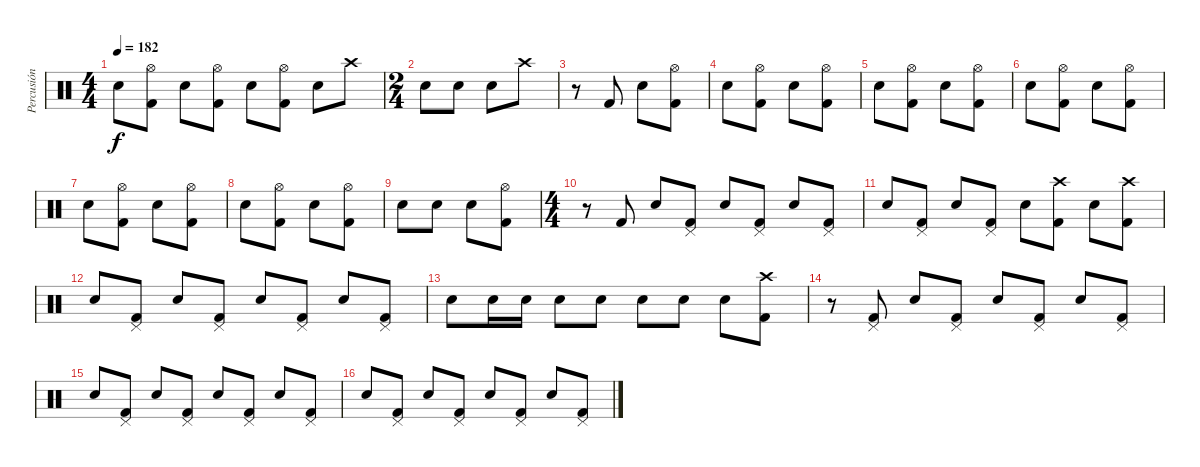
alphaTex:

\track ("Percusión" "Percusión") {instrument percussion}
\staff {score}
\articulation defaults
\ts (4 4)
\tempo 182
\clef neutral
\ks c "Electric Snare (hit)".8{dy f}
("Hi-Hat (open)" "Kick (hit) 2").8 "Electric Snare (hit)".8 ("Hi-Hat (open)" "Kick (hit) 2").8 "Electric Snare (hit)".8 ("Hi-Hat (open)" "Kick (hit) 2").8 "Electric Snare (hit)".8 "Crash high (hit)".8 |
\ts (2 4)
"Electric Snare (hit)".8 "Electric Snare (hit)".8 "Electric Snare (hit)".8 "Crash high (hit)".8 |
r.8 "Kick (hit) 2".8 "Electric Snare (hit)".8 ("Hi-Hat (open)" "Kick (hit) 2").8 |
"Electric Snare (hit)".8 ("Hi-Hat (open)" "Kick (hit) 2").8 "Electric Snare (hit)".8 ("Hi-Hat (open)" "Kick (hit) 2").8 |
"Electric Snare (hit)".8 ("Hi-Hat (open)" "Kick (hit) 2").8 "Electric Snare (hit)".8 ("Hi-Hat (open)" "Kick (hit) 2").8 |
"Electric Snare (hit)".8 ("Hi-Hat (open)" "Kick (hit) 2").8 "Electric Snare (hit)".8 ("Hi-Hat (open)" "Kick (hit) 2").8 |
"Electric Snare (hit)".8 ("Hi-Hat (open)" "Kick (hit) 2").8 "Electric Snare (hit)".8 ("Hi-Hat (open)" "Kick (hit) 2").8 |
"Electric Snare (hit)".8 ("Hi-Hat (open)" "Kick (hit) 2").8 "Electric Snare (hit)".8 ("Hi-Hat (open)" "Kick (hit) 2").8 |
"Electric Snare (hit)".8 "Electric Snare (hit)".8 "Electric Snare (hit)".8 ("Hi-Hat (open)" "Kick (hit) 2").8 |
\ts (4 4)
r.8 "Kick (hit) 2".8 "Electric Snare (hit)".8 ("Pedal Hi-Hat (hit)" "Kick (hit) 2").8 "Electric Snare (hit)".8 ("Pedal Hi-Hat (hit)" "Kick (hit) 2").8 "Electric Snare (hit)".8 ("Pedal Hi-Hat (hit)" "Kick (hit) 2").8 |
"Electric Snare (hit)".8 ("Pedal Hi-Hat (hit)" "Kick (hit) 2").8 "Electric Snare (hit)".8 ("Pedal Hi-Hat (hit)" "Kick (hit) 2").8 "Electric Snare (hit)".8 ("Crash high (hit)" "Kick (hit) 2").8 "Electric Snare (hit)".8 ("Crash high (hit)" "Kick (hit) 2").8 |
"Electric Snare (hit)".8 ("Pedal Hi-Hat (hit)" "Kick (hit) 2").8 "Electric Snare (hit)".8 ("Pedal Hi-Hat (hit)" "Kick (hit) 2").8 "Electric Snare (hit)".8 ("Pedal Hi-Hat (hit)" "Kick (hit) 2").8 "Electric Snare (hit)".8 ("Pedal Hi-Hat (hit)" "Kick (hit) 2").8 |
"Electric Snare (hit)".8 "Electric Snare (hit)".16 "Electric Snare (hit)".16 "Electric Snare (hit)".8 "Electric Snare (hit)".8 "Electric Snare (hit)".8 "Electric Snare (hit)".8 "Electric Snare (hit)".8 ("Crash high (hit)" "Kick (hit) 2").8 |
r.8 ("Pedal Hi-Hat (hit)" "Kick (hit) 2").8 "Electric Snare (hit)".8 ("Pedal Hi-Hat (hit)" "Kick (hit) 2").8 "Electric Snare (hit)".8 ("Pedal Hi-Hat (hit)" "Kick (hit) 2").8 "Electric Snare (hit)".8 ("Pedal Hi-Hat (hit)" "Kick (hit) 2").8 |
"Electric Snare (hit)".8 ("Pedal Hi-Hat (hit)" "Kick (hit) 2").8 "Electric Snare (hit)".8 ("Pedal Hi-Hat (hit)" "Kick (hit) 2").8 "Electric Snare (hit)".8 ("Pedal Hi-Hat (hit)" "Kick (hit) 2").8 "Electric Snare (hit)".8 ("Pedal Hi-Hat (hit)" "Kick (hit) 2").8 |
"Electric Snare (hit)".8 ("Pedal Hi-Hat (hit)" "Kick (hit) 2").8 "Electric Snare (hit)".8 ("Pedal Hi-Hat (hit)" "Kick (hit) 2").8 "Electric Snare (hit)".8 ("Pedal Hi-Hat (hit)" "Kick (hit) 2").8 "Electric Snare (hit)".8 ("Pedal Hi-Hat (hit)" "Kick (hit) 2").8
